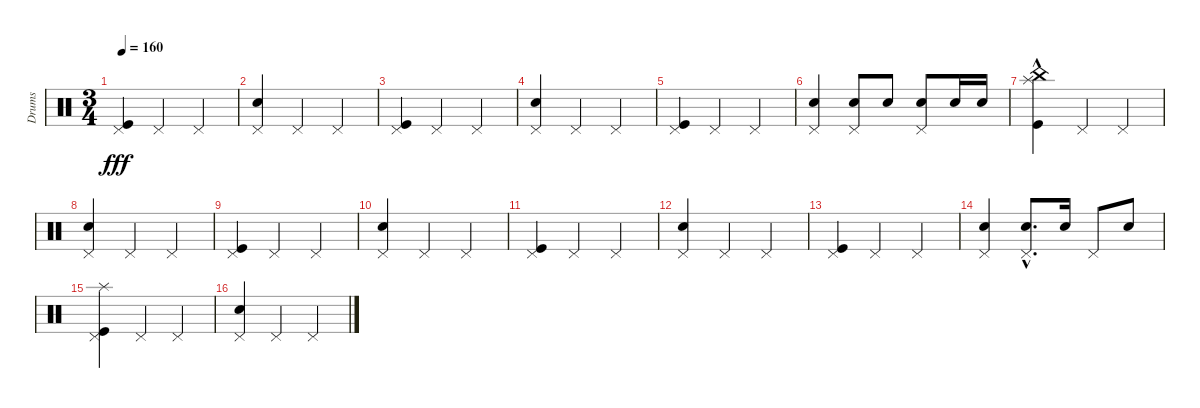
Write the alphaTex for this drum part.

\track ("Drums" "Drums") {instrument percussion}
\staff {score}
\articulation defaults
\ts (3 4)
\tempo 160
\clef neutral
\ks c
("Kick (hit)" "Pedal Hi-Hat (hit)").4{dy fff} "Pedal Hi-Hat (hit)".4 "Pedal Hi-Hat (hit)".4 |
("Electric Snare (hit)" "Pedal Hi-Hat (hit)").4 "Pedal Hi-Hat (hit)".4 "Pedal Hi-Hat (hit)".4 |
("Kick (hit)" "Pedal Hi-Hat (hit)").4 "Pedal Hi-Hat (hit)".4 "Pedal Hi-Hat (hit)".4 |
("Electric Snare (hit)" "Pedal Hi-Hat (hit)").4 "Pedal Hi-Hat (hit)".4 "Pedal Hi-Hat (hit)".4 |
("Kick (hit)" "Pedal Hi-Hat (hit)").4 "Pedal Hi-Hat (hit)".4 "Pedal Hi-Hat (hit)".4 |
("Electric Snare (hit)" "Pedal Hi-Hat (hit)").4 ("Electric Snare (hit)" "Pedal Hi-Hat (hit)").8 "Electric Snare (hit)".8 ("Electric Snare (hit)" "Pedal Hi-Hat (hit)").8 "Electric Snare (hit)".16 "Electric Snare (hit)".16 |
("Kick (hit)"{hac} "Splash (hit)"{hac} "China (hit)"{hac}).4 "Pedal Hi-Hat (hit)".4 "Pedal Hi-Hat (hit)".4 |
("Electric Snare (hit)" "Pedal Hi-Hat (hit)").4 "Pedal Hi-Hat (hit)".4 "Pedal Hi-Hat (hit)".4 |
("Kick (hit)" "Pedal Hi-Hat (hit)").4 "Pedal Hi-Hat (hit)".4 "Pedal Hi-Hat (hit)".4 |
("Electric Snare (hit)" "Pedal Hi-Hat (hit)").4 "Pedal Hi-Hat (hit)".4 "Pedal Hi-Hat (hit)".4 |
("Kick (hit)" "Pedal Hi-Hat (hit)").4 "Pedal Hi-Hat (hit)".4 "Pedal Hi-Hat (hit)".4 |
("Electric Snare (hit)" "Pedal Hi-Hat (hit)").4 "Pedal Hi-Hat (hit)".4 "Pedal Hi-Hat (hit)".4 |
("Kick (hit)" "Pedal Hi-Hat (hit)").4 "Pedal Hi-Hat (hit)".4 "Pedal Hi-Hat (hit)".4 |
("Electric Snare (hit)" "Pedal Hi-Hat (hit)").4 ("Electric Snare (hit)"{hac} "Pedal Hi-Hat (hit)"{hac}).8{d} "Electric Snare (hit)".16 "Pedal Hi-Hat (hit)".8 "Electric Snare (hit)".8 |
("Splash (hit)" "Kick (hit)" "Pedal Hi-Hat (hit)").4 "Pedal Hi-Hat (hit)".4 "Pedal Hi-Hat (hit)".4 |
("Electric Snare (hit)" "Pedal Hi-Hat (hit)").4 "Pedal Hi-Hat (hit)".4 "Pedal Hi-Hat (hit)".4
